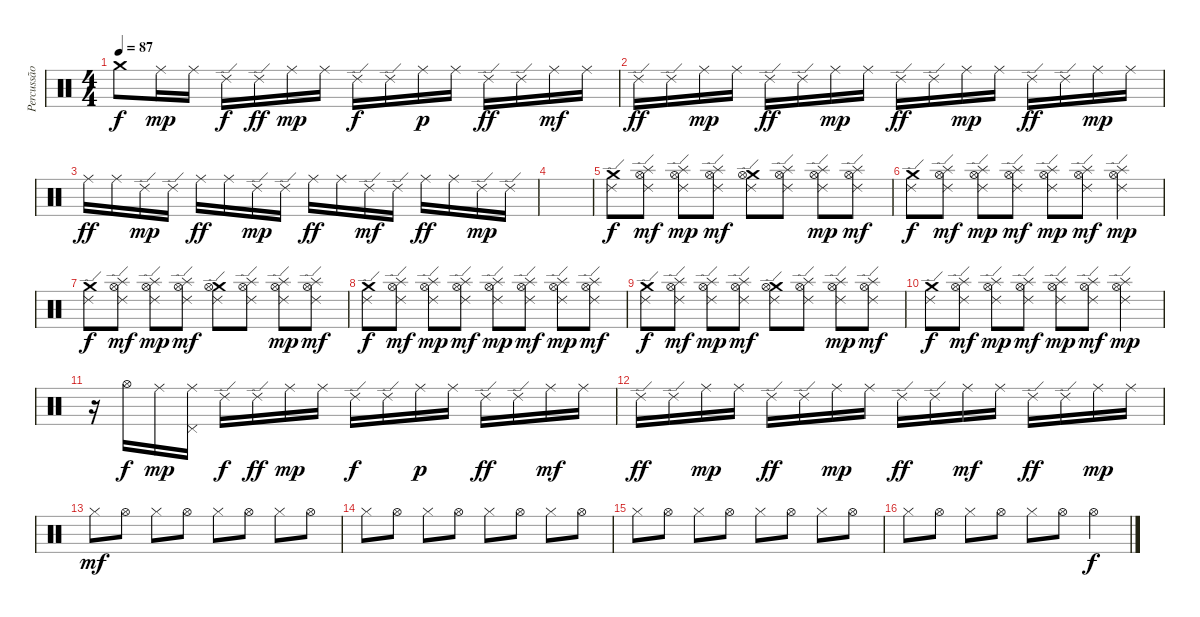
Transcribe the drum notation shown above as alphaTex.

\track ("Percussão" "Percussão") {instrument percussion}
\staff {score}
\articulation defaults
\ts (4 4)
\tempo 87
\clef neutral
\ks c "Crash medium (hit)".8{dy f} "Ride (middle)".16{dy mp} "Ride (middle)".16 "Ride (edge) 2".16{dy f} "Ride (edge) 2".16{dy ff} "Ride (middle)".16{dy mp} "Ride (middle)".16 "Ride (edge) 2".16{dy f} "Ride (edge) 2".16 "Ride (middle)".16{dy p} "Ride (middle)".16 "Ride (edge) 2".16{dy ff} "Ride (edge) 2".16 "Ride (middle)".16{dy mf} "Ride (middle)".16
|
"Ride (edge) 2".16{dy ff} "Ride (edge) 2".16 "Ride (middle)".16{dy mp} "Ride (middle)".16 "Ride (edge) 2".16{dy ff} "Ride (edge) 2".16 "Ride (middle)".16{dy mp} "Ride (middle)".16 "Ride (edge) 2".16{dy ff} "Ride (edge) 2".16 "Ride (middle)".16{dy mp} "Ride (middle)".16 "Ride (edge) 2".16{dy ff} "Ride (edge) 2".16 "Ride (middle)".16{dy mp} "Ride (middle)".16 |
"Ride (middle)".16{dy ff} "Ride (middle)".16 "Ride (edge) 2".16{dy mp} "Ride (edge) 2".16 "Ride (middle)".16{dy ff} "Ride (middle)".16 "Ride (edge) 2".16{dy mp} "Ride (edge) 2".16 "Ride (middle)".16{dy ff} "Ride (middle)".16 "Ride (edge) 2".16{dy mf} "Ride (edge) 2".16 "Ride (middle)".16{dy ff} "Ride (middle)".16 "Ride (edge) 2".16{dy mp} "Ride (edge) 2".16 |
|
("Crash medium (hit)" "Ride (edge) 2").8{dy f} ("Splash (hit)" "Hi-Hat (open)" "Ride (edge) 2").8{dy mf} ("Splash (hit)" "Hi-Hat (open)" "Ride (edge) 2").8{dy mp} ("Splash (hit)" "Hi-Hat (open)" "Ride (edge) 2").8{dy mf} ("Crash medium (hit)" "Hi-Hat (open)" "Ride (edge) 2").8 ("Splash (hit)" "Hi-Hat (open)" "Ride (edge) 2").8 ("Splash (hit)" "Hi-Hat (open)" "Ride (edge) 2").8{dy mp} ("Splash (hit)" "Hi-Hat (open)" "Ride (edge) 2").8{dy mf} |
("Crash medium (hit)" "Ride (edge) 2").8{dy f} ("Splash (hit)" "Hi-Hat (open)" "Ride (edge) 2").8{dy mf} ("Splash (hit)" "Hi-Hat (open)" "Ride (edge) 2").8{dy mp} ("Splash (hit)" "Hi-Hat (open)" "Ride (edge) 2").8{dy mf} ("Splash (hit)" "Hi-Hat (open)" "Ride (edge) 2").8{dy mp} ("Splash (hit)" "Hi-Hat (open)" "Ride (edge) 2").8{dy mf} ("Splash (hit)" "Hi-Hat (open)" "Ride (edge) 2").4{dy mp} |
("Crash medium (hit)" "Ride (edge) 2").8{dy f} ("Splash (hit)" "Hi-Hat (open)" "Ride (edge) 2").8{dy mf} ("Splash (hit)" "Hi-Hat (open)" "Ride (edge) 2").8{dy mp} ("Splash (hit)" "Hi-Hat (open)" "Ride (edge) 2").8{dy mf} ("Crash medium (hit)" "Hi-Hat (open)" "Ride (edge) 2").8 ("Splash (hit)" "Hi-Hat (open)" "Ride (edge) 2").8 ("Splash (hit)" "Hi-Hat (open)" "Ride (edge) 2").8{dy mp} ("Splash (hit)" "Hi-Hat (open)" "Ride (edge) 2").8{dy mf} |
("Crash medium (hit)" "Ride (edge) 2").8{dy f} ("Splash (hit)" "Hi-Hat (open)" "Ride (edge) 2").8{dy mf} ("Splash (hit)" "Hi-Hat (open)" "Ride (edge) 2").8{dy mp} ("Splash (hit)" "Hi-Hat (open)" "Ride (edge) 2").8{dy mf} ("Splash (hit)" "Hi-Hat (open)" "Ride (edge) 2").8{dy mp} ("Splash (hit)" "Hi-Hat (open)" "Ride (edge) 2").8{dy mf} ("Splash (hit)" "Hi-Hat (open)" "Ride (edge) 2").8{dy mp} ("Splash (hit)" "Hi-Hat (open)" "Ride (edge) 2").8{dy mf} |
("Crash medium (hit)" "Ride (edge) 2").8{dy f} ("Splash (hit)" "Hi-Hat (open)" "Ride (edge) 2").8{dy mf} ("Splash (hit)" "Hi-Hat (open)" "Ride (edge) 2").8{dy mp} ("Splash (hit)" "Hi-Hat (open)" "Ride (edge) 2").8{dy mf} ("Crash medium (hit)" "Hi-Hat (open)" "Ride (edge) 2").8 ("Splash (hit)" "Hi-Hat (open)" "Ride (edge) 2").8 ("Splash (hit)" "Hi-Hat (open)" "Ride (edge) 2").8{dy mp} ("Splash (hit)" "Hi-Hat (open)" "Ride (edge) 2").8{dy mf} |
("Crash medium (hit)" "Ride (edge) 2").8{dy f} ("Splash (hit)" "Hi-Hat (open)" "Ride (edge) 2").8{dy mf} ("Splash (hit)" "Hi-Hat (open)" "Ride (edge) 2").8{dy mp} ("Splash (hit)" "Hi-Hat (open)" "Ride (edge) 2").8{dy mf} ("Splash (hit)" "Hi-Hat (open)" "Ride (edge) 2").8{dy mp} ("Splash (hit)" "Hi-Hat (open)" "Ride (edge) 2").8{dy mf} ("Splash (hit)" "Hi-Hat (open)" "Ride (edge) 2").4{dy mp} |
r.16 "Hi-Hat (open)".16{dy f} "Ride (middle)".16{dy mp} ("Pedal Hi-Hat (hit)" "Ride (middle)").16 "Ride (edge) 2".16{dy f} "Ride (edge) 2".16{dy ff} "Ride (middle)".16{dy mp} "Ride (middle)".16 "Ride (edge) 2".16{dy f} "Ride (edge) 2".16 "Ride (middle)".16{dy p} "Ride (middle)".16 "Ride (edge) 2".16{dy ff} "Ride (edge) 2".16 "Ride (middle)".16{dy mf} "Ride (middle)".16 |
"Ride (edge) 2".16{dy ff} "Ride (edge) 2".16 "Ride (middle)".16{dy mp} "Ride (middle)".16 "Ride (edge) 2".16{dy ff} "Ride (edge) 2".16 "Ride (middle)".16{dy mp} "Ride (middle)".16 "Ride (edge) 2".16{dy ff} "Ride (edge) 2".16 "Ride (middle)".16{dy mf} "Ride (middle)".16 "Ride (edge) 2".16{dy ff} "Ride (edge) 2".16 "Ride (middle)".16{dy mp} "Ride (middle)".16 |
"Hi-Hat (closed)".8{dy mf} "Hi-Hat (open)".8 "Hi-Hat (closed)".8 "Hi-Hat (open)".8 "Hi-Hat (closed)".8 "Hi-Hat (open)".8 "Hi-Hat (closed)".8 "Hi-Hat (open)".8 |
"Hi-Hat (closed)".8 "Hi-Hat (open)".8 "Hi-Hat (closed)".8 "Hi-Hat (open)".8 "Hi-Hat (closed)".8 "Hi-Hat (open)".8 "Hi-Hat (closed)".8 "Hi-Hat (open)".8 |
"Hi-Hat (closed)".8 "Hi-Hat (open)".8 "Hi-Hat (closed)".8 "Hi-Hat (open)".8 "Hi-Hat (closed)".8 "Hi-Hat (open)".8 "Hi-Hat (closed)".8 "Hi-Hat (open)".8 |
"Hi-Hat (closed)".8 "Hi-Hat (open)".8 "Hi-Hat (closed)".8 "Hi-Hat (open)".8 "Hi-Hat (closed)".8 "Hi-Hat (open)".8 "Hi-Hat (open)".4{dy f}
